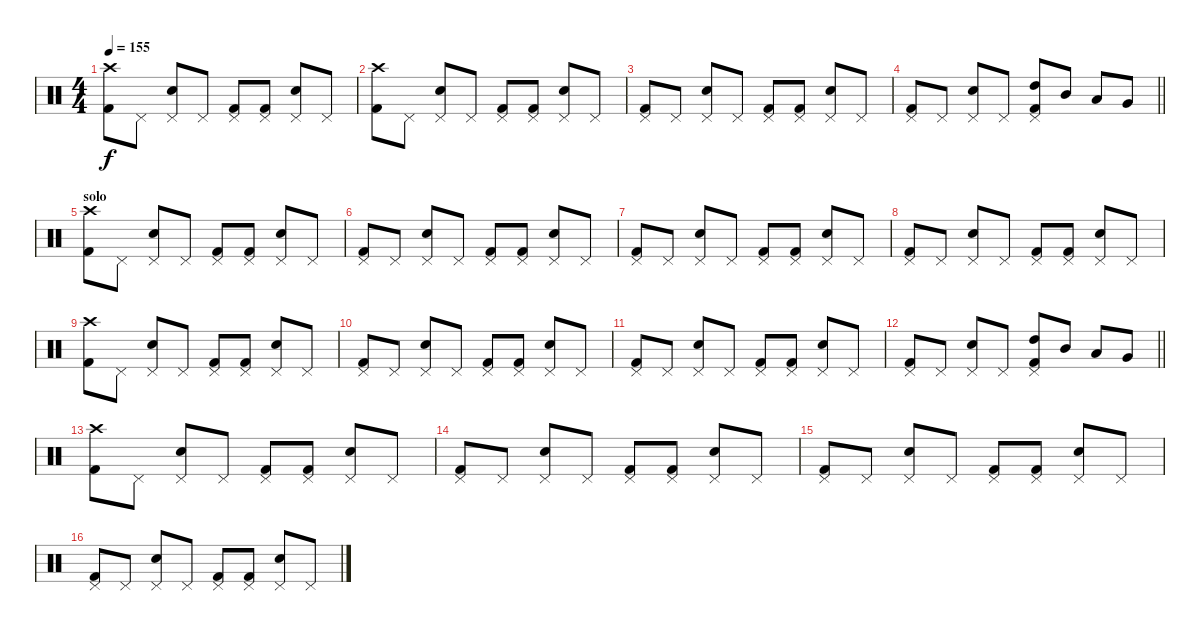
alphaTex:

\track "" {instrument percussion}
\staff {score}
\articulation defaults
\ts (4 4)
\tempo 155
\clef neutral
\ks c
("Crash high (hit)" "Kick (hit) 2").8{dy f} "Pedal Hi-Hat (hit)".8 ("Pedal Hi-Hat (hit)" "Electric Snare (hit)").8 "Pedal Hi-Hat (hit)".8 ("Pedal Hi-Hat (hit)" "Kick (hit) 2").8 ("Pedal Hi-Hat (hit)" "Kick (hit) 2").8 ("Pedal Hi-Hat (hit)" "Electric Snare (hit)").8 "Pedal Hi-Hat (hit)".8 |
("Crash high (hit)" "Kick (hit) 2").8 "Pedal Hi-Hat (hit)".8 ("Pedal Hi-Hat (hit)" "Electric Snare (hit)").8 "Pedal Hi-Hat (hit)".8 ("Pedal Hi-Hat (hit)" "Kick (hit) 2").8 ("Pedal Hi-Hat (hit)" "Kick (hit) 2").8 ("Pedal Hi-Hat (hit)" "Electric Snare (hit)").8 "Pedal Hi-Hat (hit)".8 |
("Pedal Hi-Hat (hit)" "Kick (hit) 2").8 "Pedal Hi-Hat (hit)".8 ("Pedal Hi-Hat (hit)" "Electric Snare (hit)").8 "Pedal Hi-Hat (hit)".8 ("Pedal Hi-Hat (hit)" "Kick (hit) 2").8 ("Pedal Hi-Hat (hit)" "Kick (hit) 2").8 ("Pedal Hi-Hat (hit)" "Electric Snare (hit)").8 "Pedal Hi-Hat (hit)".8 |
\barLineRight lightlight
("Pedal Hi-Hat (hit)" "Kick (hit) 2").8 "Pedal Hi-Hat (hit)".8 ("Pedal Hi-Hat (hit)" "Electric Snare (hit)").8 "Pedal Hi-Hat (hit)".8 ("Pedal Hi-Hat (hit)" "High Tom (hit)" "Kick (hit) 2").8 "Mid Tom (hit)".8 "Low Tom (hit)".8 "Very Low Tom (hit)".8 |
\section ("" "solo")
("Crash high (hit)" "Kick (hit) 2").8 "Pedal Hi-Hat (hit)".8 ("Pedal Hi-Hat (hit)" "Electric Snare (hit)").8 "Pedal Hi-Hat (hit)".8 ("Pedal Hi-Hat (hit)" "Kick (hit) 2").8 ("Pedal Hi-Hat (hit)" "Kick (hit) 2").8 ("Pedal Hi-Hat (hit)" "Electric Snare (hit)").8 "Pedal Hi-Hat (hit)".8 |
("Pedal Hi-Hat (hit)" "Kick (hit) 2").8 "Pedal Hi-Hat (hit)".8 ("Pedal Hi-Hat (hit)" "Electric Snare (hit)").8 "Pedal Hi-Hat (hit)".8 ("Pedal Hi-Hat (hit)" "Kick (hit) 2").8 ("Pedal Hi-Hat (hit)" "Kick (hit) 2").8 ("Pedal Hi-Hat (hit)" "Electric Snare (hit)").8 "Pedal Hi-Hat (hit)".8 |
("Pedal Hi-Hat (hit)" "Kick (hit) 2").8 "Pedal Hi-Hat (hit)".8 ("Pedal Hi-Hat (hit)" "Electric Snare (hit)").8 "Pedal Hi-Hat (hit)".8 ("Pedal Hi-Hat (hit)" "Kick (hit) 2").8 ("Pedal Hi-Hat (hit)" "Kick (hit) 2").8 ("Pedal Hi-Hat (hit)" "Electric Snare (hit)").8 "Pedal Hi-Hat (hit)".8 |
("Pedal Hi-Hat (hit)" "Kick (hit) 2").8 "Pedal Hi-Hat (hit)".8 ("Pedal Hi-Hat (hit)" "Electric Snare (hit)").8 "Pedal Hi-Hat (hit)".8 ("Pedal Hi-Hat (hit)" "Kick (hit) 2").8 ("Pedal Hi-Hat (hit)" "Kick (hit) 2").8 ("Pedal Hi-Hat (hit)" "Electric Snare (hit)").8 "Pedal Hi-Hat (hit)".8 |
("Crash high (hit)" "Kick (hit) 2").8 "Pedal Hi-Hat (hit)".8 ("Pedal Hi-Hat (hit)" "Electric Snare (hit)").8 "Pedal Hi-Hat (hit)".8 ("Pedal Hi-Hat (hit)" "Kick (hit) 2").8 ("Pedal Hi-Hat (hit)" "Kick (hit) 2").8 ("Pedal Hi-Hat (hit)" "Electric Snare (hit)").8 "Pedal Hi-Hat (hit)".8 |
("Pedal Hi-Hat (hit)" "Kick (hit) 2").8 "Pedal Hi-Hat (hit)".8 ("Pedal Hi-Hat (hit)" "Electric Snare (hit)").8 "Pedal Hi-Hat (hit)".8 ("Pedal Hi-Hat (hit)" "Kick (hit) 2").8 ("Pedal Hi-Hat (hit)" "Kick (hit) 2").8 ("Pedal Hi-Hat (hit)" "Electric Snare (hit)").8 "Pedal Hi-Hat (hit)".8 |
("Pedal Hi-Hat (hit)" "Kick (hit) 2").8{txt ""} "Pedal Hi-Hat (hit)".8 ("Pedal Hi-Hat (hit)" "Electric Snare (hit)").8 "Pedal Hi-Hat (hit)".8 ("Pedal Hi-Hat (hit)" "Kick (hit) 2").8 ("Pedal Hi-Hat (hit)" "Kick (hit) 2").8 ("Pedal Hi-Hat (hit)" "Electric Snare (hit)").8 "Pedal Hi-Hat (hit)".8 |
\barLineRight lightlight
("Pedal Hi-Hat (hit)" "Kick (hit) 2").8 "Pedal Hi-Hat (hit)".8 ("Pedal Hi-Hat (hit)" "Electric Snare (hit)").8 "Pedal Hi-Hat (hit)".8 ("Pedal Hi-Hat (hit)" "High Tom (hit)" "Kick (hit) 2").8 "Mid Tom (hit)".8 "Low Tom (hit)".8 "Very Low Tom (hit)".8 |
("Crash high (hit)" "Kick (hit) 2").8 "Pedal Hi-Hat (hit)".8 ("Pedal Hi-Hat (hit)" "Electric Snare (hit)").8 "Pedal Hi-Hat (hit)".8 ("Pedal Hi-Hat (hit)" "Kick (hit) 2").8 ("Pedal Hi-Hat (hit)" "Kick (hit) 2").8 ("Pedal Hi-Hat (hit)" "Electric Snare (hit)").8 "Pedal Hi-Hat (hit)".8 |
("Pedal Hi-Hat (hit)" "Kick (hit) 2").8 "Pedal Hi-Hat (hit)".8 ("Pedal Hi-Hat (hit)" "Electric Snare (hit)").8 "Pedal Hi-Hat (hit)".8 ("Pedal Hi-Hat (hit)" "Kick (hit) 2").8 ("Pedal Hi-Hat (hit)" "Kick (hit) 2").8 ("Pedal Hi-Hat (hit)" "Electric Snare (hit)").8 "Pedal Hi-Hat (hit)".8 |
("Pedal Hi-Hat (hit)" "Kick (hit) 2").8 "Pedal Hi-Hat (hit)".8 ("Pedal Hi-Hat (hit)" "Electric Snare (hit)").8 "Pedal Hi-Hat (hit)".8 ("Pedal Hi-Hat (hit)" "Kick (hit) 2").8 ("Pedal Hi-Hat (hit)" "Kick (hit) 2").8 ("Pedal Hi-Hat (hit)" "Electric Snare (hit)").8 "Pedal Hi-Hat (hit)".8 |
("Pedal Hi-Hat (hit)" "Kick (hit) 2").8 "Pedal Hi-Hat (hit)".8 ("Pedal Hi-Hat (hit)" "Electric Snare (hit)").8 "Pedal Hi-Hat (hit)".8 ("Pedal Hi-Hat (hit)" "Kick (hit) 2").8 ("Pedal Hi-Hat (hit)" "Kick (hit) 2").8 ("Pedal Hi-Hat (hit)" "Electric Snare (hit)").8 "Pedal Hi-Hat (hit)".8
